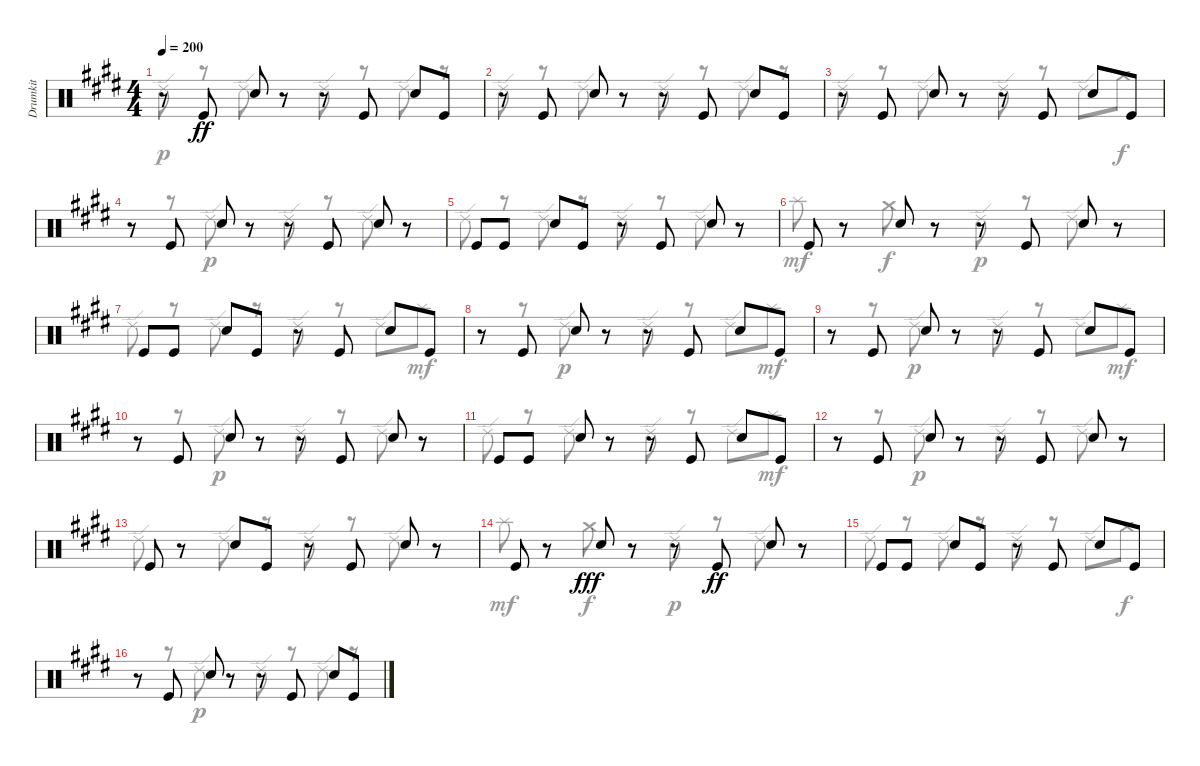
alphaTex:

\track ("Drumkit" "Drumkit") {instrument percussion}
\staff {score}
\articulation defaults
\voice
\ts (4 4)
\tempo 200
\clef neutral
\ks c#minor
r.8{dy ff} "Kick (hit)".8 "Snare (hit) 2".8 r.8 r.8 "Kick (hit)".8 "Snare (hit) 2".8 "Kick (hit)".8 |
r.8 "Kick (hit)".8 "Snare (hit) 2".8 r.8 r.8 "Kick (hit)".8 "Snare (hit) 2".8 "Kick (hit)".8 |
r.8 "Kick (hit)".8 "Snare (hit) 2".8 r.8 r.8 "Kick (hit)".8 "Snare (hit) 2".8 "Kick (hit)".8 |
r.8 "Kick (hit)".8 "Snare (hit) 2".8 r.8 r.8 "Kick (hit)".8 "Snare (hit) 2".8 r.8 |
"Kick (hit)".8 "Kick (hit)".8 "Snare (hit) 2".8 "Kick (hit)".8 r.8 "Kick (hit)".8 "Snare (hit) 2".8 r.8 |
"Kick (hit)".8 r.8 "Snare (hit) 2".8 r.8 r.8 "Kick (hit)".8 "Snare (hit) 2".8 r.8 |
"Kick (hit)".8 "Kick (hit)".8 "Snare (hit) 2".8 "Kick (hit)".8 r.8 "Kick (hit)".8 "Snare (hit) 2".8 "Kick (hit)".8 |
r.8 "Kick (hit)".8 "Snare (hit) 2".8 r.8 r.8 "Kick (hit)".8 "Snare (hit) 2".8 "Kick (hit)".8 |
r.8 "Kick (hit)".8 "Snare (hit) 2".8 r.8 r.8 "Kick (hit)".8 "Snare (hit) 2".8 "Kick (hit)".8 |
r.8 "Kick (hit)".8 "Snare (hit) 2".8 r.8 r.8 "Kick (hit)".8 "Snare (hit) 2".8 r.8 |
"Kick (hit)".8 "Kick (hit)".8 "Snare (hit) 2".8 r.8 r.8 "Kick (hit)".8 "Snare (hit) 2".8 "Kick (hit)".8 |
r.8 "Kick (hit)".8 "Snare (hit) 2".8 r.8 r.8 "Kick (hit)".8 "Snare (hit) 2".8 r.8 |
"Kick (hit)".8 r.8 "Snare (hit) 2".8 "Kick (hit)".8 r.8 "Kick (hit)".8 "Snare (hit) 2".8 r.8 |
"Kick (hit)".8 r.8 "Snare (hit) 2".8{dy fff} r.8 r.8 "Kick (hit)".8{dy ff} "Snare (hit) 2".8 r.8 |
"Kick (hit)".8 "Kick (hit)".8 "Snare (hit) 2".8 "Kick (hit)".8 r.8 "Kick (hit)".8 "Snare (hit) 2".8 "Kick (hit)".8 |
r.8 "Kick (hit)".8 "Snare (hit) 2".8 r.8 r.8 "Kick (hit)".8 "Snare (hit) 2".8 "Kick (hit)".8
\voice
\clef neutral
\ottava regular
\simile none
\ks c#minor "Ride (edge) 2".8{dy p}
r.8 "Ride (edge) 2".8 r.8 "Ride (edge) 2".8 r.8 "Ride (edge) 2".8 r.8 |
"Ride (edge) 2".8 r.8 "Ride (edge) 2".8 r.8 "Ride (edge) 2".8 r.8 "Ride (edge) 2".8 r.8 |
"Ride (edge) 2".8 r.8 "Ride (edge) 2".8 r.8 "Ride (edge) 2".8 r.8 "Ride (edge) 2".8 "Crash medium (hit)".8{dy f} |
r.8 r.8 "Ride (edge) 2".8{dy p} r.8 "Ride (edge) 2".8 r.8 "Ride (edge) 2".8 r.8 |
"Ride (edge) 2".8 r.8 "Ride (edge) 2".8 r.8 "Ride (edge) 2".8 r.8 "Ride (edge) 2".8 r.8 |
"Splash (hit)".8{dy mf} r.8 "Crash medium (hit)".8{dy f} r.8 "Ride (edge) 2".8{dy p} r.8 "Ride (edge) 2".8 r.8 |
"Ride (edge) 2".8 r.8 "Ride (edge) 2".8 r.8 "Ride (edge) 2".8 r.8 "Ride (edge) 2".8 "Splash (hit)".8{dy mf} |
r.8 r.8 "Ride (edge) 2".8{dy p} r.8 "Ride (edge) 2".8 r.8 "Ride (edge) 2".8 "Splash (hit)".8{dy mf} |
r.8 r.8 "Ride (edge) 2".8{dy p} r.8 "Ride (edge) 2".8 r.8 "Ride (edge) 2".8 "Splash (hit)".8{dy mf} |
r.8 r.8 "Ride (edge) 2".8{dy p} r.8 "Ride (edge) 2".8 r.8 "Ride (edge) 2".8 r.8 |
"Ride (edge) 2".8 r.8 "Ride (edge) 2".8 r.8 "Ride (edge) 2".8 r.8 "Ride (edge) 2".8 "Splash (hit)".8{dy mf} |
r.8 r.8 "Ride (edge) 2".8{dy p} r.8 "Ride (edge) 2".8 r.8 "Ride (edge) 2".8 r.8 |
"Ride (edge) 2".8 r.8 "Ride (edge) 2".8 r.8 "Ride (edge) 2".8 r.8 "Ride (edge) 2".8 r.8 |
"Splash (hit)".8{dy mf} r.8 "Crash medium (hit)".8{dy f} r.8 "Ride (edge) 2".8{dy p} r.8 "Ride (edge) 2".8 r.8 |
"Ride (edge) 2".8 r.8 "Ride (edge) 2".8 r.8 "Ride (edge) 2".8 r.8 "Ride (edge) 2".8 "Crash medium (hit)".8{dy f} |
r.8 r.8 "Ride (edge) 2".8{dy p} r.8 "Ride (edge) 2".8 r.8 "Ride (edge) 2".8 r.8
